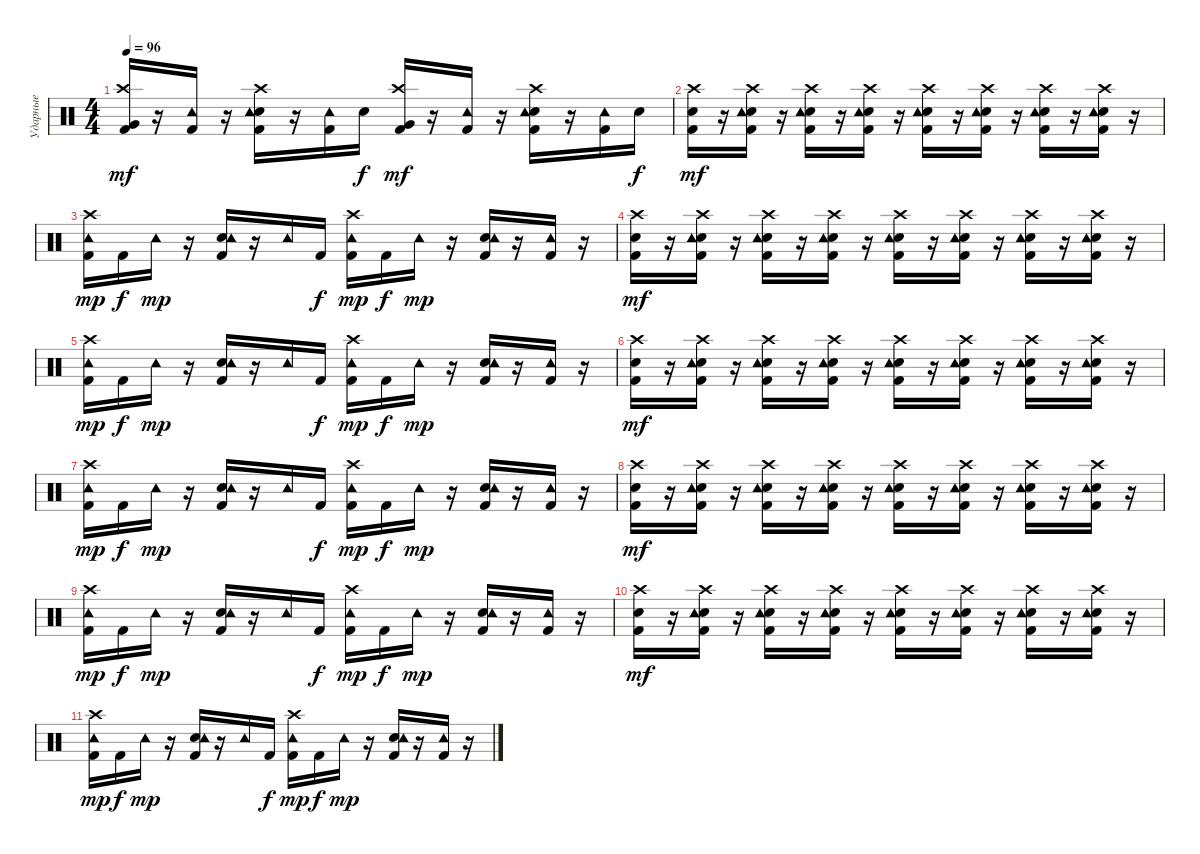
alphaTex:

\track ("Ударные" "Ударные") {instrument percussion}
\staff {score}
\articulation defaults
\ts (4 4)
\tempo 96
\clef neutral
\ks c
("Very Low Tom (hit)" "Crash high (hit)" "Kick (hit) 2").16{dy mf} r.16 ("Tambourine (hit)" "Kick (hit) 2").16 r.16 ("Electric Snare (hit)" "Crash high (hit)" "Tambourine (hit)" "Kick (hit) 2").16 r.16 ("Tambourine (hit)" "Kick (hit) 2").16 "Electric Snare (hit)".16{dy f} ("Very Low Tom (hit)" "Crash high (hit)" "Kick (hit) 2").16{dy mf} r.16 ("Tambourine (hit)" "Kick (hit) 2").16 r.16 ("Electric Snare (hit)" "Crash high (hit)" "Tambourine (hit)" "Kick (hit) 2").16 r.16 ("Tambourine (hit)" "Kick (hit) 2").16 "Electric Snare (hit)".16{dy f} |
("Electric Snare (hit)" "Crash high (hit)" "Kick (hit) 2").16{dy mf} r.16 ("Electric Snare (hit)" "Crash high (hit)" "Tambourine (hit)" "Kick (hit) 2").16 r.16 ("Electric Snare (hit)" "Crash high (hit)" "Tambourine (hit)" "Kick (hit) 2").16 r.16 ("Electric Snare (hit)" "Crash high (hit)" "Tambourine (hit)" "Kick (hit) 2").16 r.16 ("Electric Snare (hit)" "Crash high (hit)" "Tambourine (hit)" "Kick (hit) 2").16 r.16 ("Electric Snare (hit)" "Crash high (hit)" "Tambourine (hit)" "Kick (hit) 2").16 r.16 ("Electric Snare (hit)" "Crash high (hit)" "Tambourine (hit)" "Kick (hit) 2").16 r.16 ("Electric Snare (hit)" "Crash high (hit)" "Tambourine (hit)" "Kick (hit) 2").16 r.16 |
("Crash high (hit)" "Tambourine (hit)" "Kick (hit) 2").16{dy mp} "Kick (hit) 2".16{dy f} "Tambourine (hit)".16{dy mp} r.16 ("Electric Snare (hit)" "Tambourine (hit)" "Kick (hit) 2").16 r.16 "Tambourine (hit)".16 "Kick (hit) 2".16{dy f} ("Crash high (hit)" "Tambourine (hit)" "Kick (hit) 2").16{dy mp} "Kick (hit) 2".16{dy f} "Tambourine (hit)".16{dy mp} r.16 ("Electric Snare (hit)" "Tambourine (hit)" "Kick (hit) 2").16 r.16 ("Tambourine (hit)" "Kick (hit) 2").16 r.16 |
("Electric Snare (hit)" "Crash high (hit)" "Kick (hit) 2").16{dy mf} r.16 ("Electric Snare (hit)" "Crash high (hit)" "Tambourine (hit)" "Kick (hit) 2").16 r.16 ("Electric Snare (hit)" "Crash high (hit)" "Tambourine (hit)" "Kick (hit) 2").16 r.16 ("Electric Snare (hit)" "Crash high (hit)" "Tambourine (hit)" "Kick (hit) 2").16 r.16 ("Electric Snare (hit)" "Crash high (hit)" "Tambourine (hit)" "Kick (hit) 2").16 r.16 ("Electric Snare (hit)" "Crash high (hit)" "Tambourine (hit)" "Kick (hit) 2").16 r.16 ("Electric Snare (hit)" "Crash high (hit)" "Tambourine (hit)" "Kick (hit) 2").16 r.16 ("Electric Snare (hit)" "Crash high (hit)" "Tambourine (hit)" "Kick (hit) 2").16 r.16 |
("Crash high (hit)" "Tambourine (hit)" "Kick (hit) 2").16{dy mp} "Kick (hit) 2".16{dy f} "Tambourine (hit)".16{dy mp} r.16 ("Electric Snare (hit)" "Tambourine (hit)" "Kick (hit) 2").16 r.16 "Tambourine (hit)".16 "Kick (hit) 2".16{dy f} ("Crash high (hit)" "Tambourine (hit)" "Kick (hit) 2").16{dy mp} "Kick (hit) 2".16{dy f} "Tambourine (hit)".16{dy mp} r.16 ("Electric Snare (hit)" "Tambourine (hit)" "Kick (hit) 2").16 r.16 ("Tambourine (hit)" "Kick (hit) 2").16 r.16 |
("Electric Snare (hit)" "Crash high (hit)" "Kick (hit) 2").16{dy mf volume 0} r.16 ("Electric Snare (hit)" "Crash high (hit)" "Tambourine (hit)" "Kick (hit) 2").16 r.16 ("Electric Snare (hit)" "Crash high (hit)" "Tambourine (hit)" "Kick (hit) 2").16 r.16 ("Electric Snare (hit)" "Crash high (hit)" "Tambourine (hit)" "Kick (hit) 2").16 r.16 ("Electric Snare (hit)" "Crash high (hit)" "Tambourine (hit)" "Kick (hit) 2").16 r.16 ("Electric Snare (hit)" "Crash high (hit)" "Tambourine (hit)" "Kick (hit) 2").16 r.16 ("Electric Snare (hit)" "Crash high (hit)" "Tambourine (hit)" "Kick (hit) 2").16 r.16 ("Electric Snare (hit)" "Crash high (hit)" "Tambourine (hit)" "Kick (hit) 2").16 r.16 |
("Crash high (hit)" "Tambourine (hit)" "Kick (hit) 2").16{dy mp} "Kick (hit) 2".16{dy f} "Tambourine (hit)".16{dy mp} r.16 ("Electric Snare (hit)" "Tambourine (hit)" "Kick (hit) 2").16 r.16 "Tambourine (hit)".16 "Kick (hit) 2".16{dy f} ("Crash high (hit)" "Tambourine (hit)" "Kick (hit) 2").16{dy mp} "Kick (hit) 2".16{dy f} "Tambourine (hit)".16{dy mp} r.16 ("Electric Snare (hit)" "Tambourine (hit)" "Kick (hit) 2").16 r.16 ("Tambourine (hit)" "Kick (hit) 2").16 r.16 |
("Electric Snare (hit)" "Crash high (hit)" "Kick (hit) 2").16{dy mf} r.16 ("Electric Snare (hit)" "Crash high (hit)" "Tambourine (hit)" "Kick (hit) 2").16 r.16 ("Electric Snare (hit)" "Crash high (hit)" "Tambourine (hit)" "Kick (hit) 2").16 r.16 ("Electric Snare (hit)" "Crash high (hit)" "Tambourine (hit)" "Kick (hit) 2").16 r.16 ("Electric Snare (hit)" "Crash high (hit)" "Tambourine (hit)" "Kick (hit) 2").16 r.16 ("Electric Snare (hit)" "Crash high (hit)" "Tambourine (hit)" "Kick (hit) 2").16 r.16 ("Electric Snare (hit)" "Crash high (hit)" "Tambourine (hit)" "Kick (hit) 2").16 r.16 ("Electric Snare (hit)" "Crash high (hit)" "Tambourine (hit)" "Kick (hit) 2").16 r.16 |
("Crash high (hit)" "Tambourine (hit)" "Kick (hit) 2").16{dy mp} "Kick (hit) 2".16{dy f} "Tambourine (hit)".16{dy mp} r.16 ("Electric Snare (hit)" "Tambourine (hit)" "Kick (hit) 2").16 r.16 "Tambourine (hit)".16 "Kick (hit) 2".16{dy f} ("Crash high (hit)" "Tambourine (hit)" "Kick (hit) 2").16{dy mp} "Kick (hit) 2".16{dy f} "Tambourine (hit)".16{dy mp} r.16 ("Electric Snare (hit)" "Tambourine (hit)" "Kick (hit) 2").16 r.16 ("Tambourine (hit)" "Kick (hit) 2").16 r.16 |
("Electric Snare (hit)" "Crash high (hit)" "Kick (hit) 2").16{dy mf} r.16 ("Electric Snare (hit)" "Crash high (hit)" "Tambourine (hit)" "Kick (hit) 2").16 r.16 ("Electric Snare (hit)" "Crash high (hit)" "Tambourine (hit)" "Kick (hit) 2").16 r.16 ("Electric Snare (hit)" "Crash high (hit)" "Tambourine (hit)" "Kick (hit) 2").16 r.16 ("Electric Snare (hit)" "Crash high (hit)" "Tambourine (hit)" "Kick (hit) 2").16 r.16 ("Electric Snare (hit)" "Crash high (hit)" "Tambourine (hit)" "Kick (hit) 2").16 r.16 ("Electric Snare (hit)" "Crash high (hit)" "Tambourine (hit)" "Kick (hit) 2").16 r.16 ("Electric Snare (hit)" "Crash high (hit)" "Tambourine (hit)" "Kick (hit) 2").16 r.16 |
("Crash high (hit)" "Tambourine (hit)" "Kick (hit) 2").16{dy mp} "Kick (hit) 2".16{dy f} "Tambourine (hit)".16{dy mp} r.16 ("Electric Snare (hit)" "Tambourine (hit)" "Kick (hit) 2").16 r.16 "Tambourine (hit)".16 "Kick (hit) 2".16{dy f} ("Crash high (hit)" "Tambourine (hit)" "Kick (hit) 2").16{dy mp} "Kick (hit) 2".16{dy f} "Tambourine (hit)".16{dy mp} r.16 ("Electric Snare (hit)" "Tambourine (hit)" "Kick (hit) 2").16 r.16 ("Tambourine (hit)" "Kick (hit) 2").16 r.16
